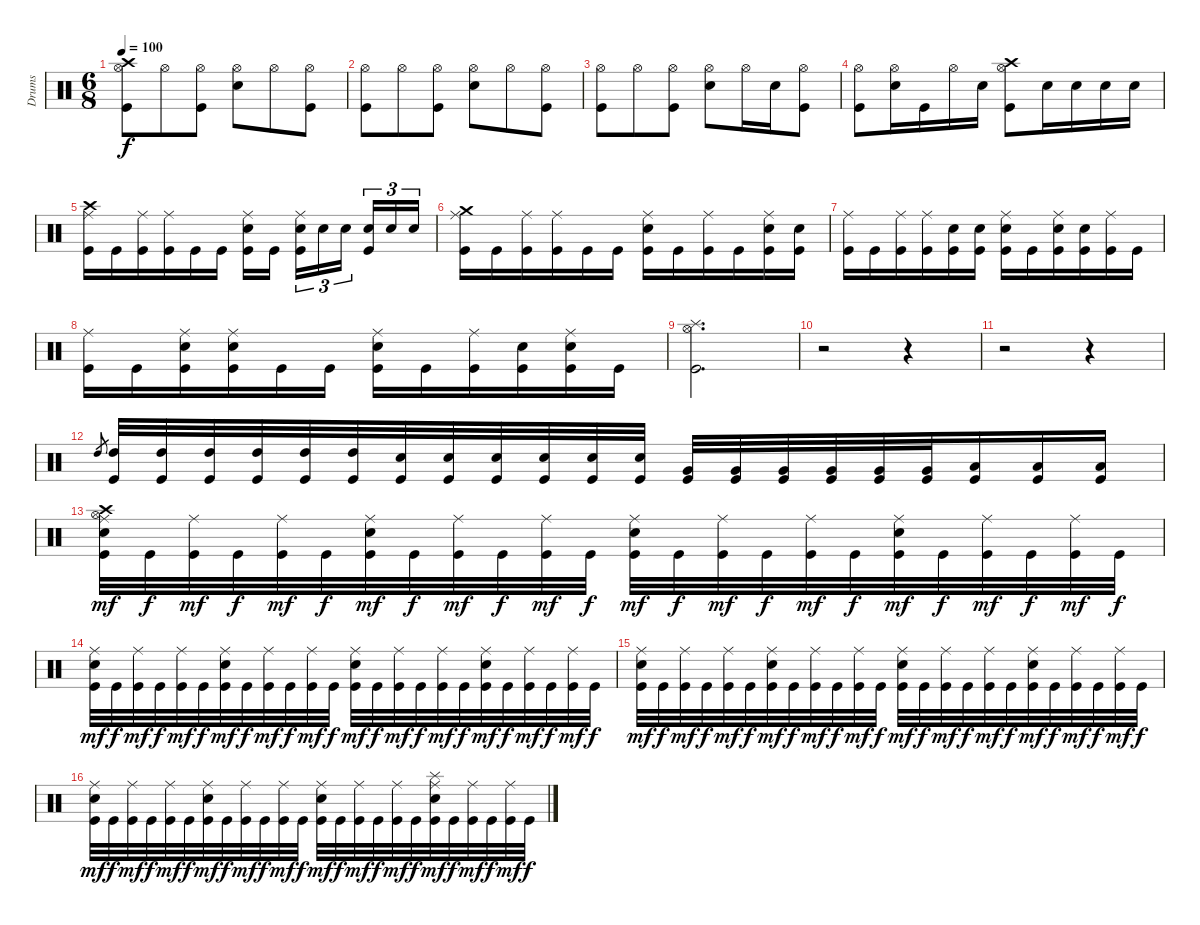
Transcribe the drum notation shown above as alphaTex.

\track ("Drums" "Drums") {instrument percussion}
\staff {score}
\articulation defaults
\ts (6 8)
\tempo 100
\clef neutral
\ks c
("Crash high (hit)" "Hi-Hat (open)" "Kick (hit)").8{dy f} "Hi-Hat (open)".8 ("Hi-Hat (open)" "Kick (hit)").8 ("Hi-Hat (open)" "Electric Snare (hit)").8 "Hi-Hat (open)".8 ("Hi-Hat (open)" "Kick (hit)").8 |
("Hi-Hat (open)" "Kick (hit)").8 "Hi-Hat (open)".8 ("Hi-Hat (open)" "Kick (hit)").8 ("Hi-Hat (open)" "Electric Snare (hit)").8 "Hi-Hat (open)".8 ("Hi-Hat (open)" "Kick (hit)").8 |
("Hi-Hat (open)" "Kick (hit)").8 "Hi-Hat (open)".8 ("Hi-Hat (open)" "Kick (hit)").8 ("Hi-Hat (open)" "Electric Snare (hit)").8 "Hi-Hat (open)".16 "Electric Snare (hit)".16 ("Hi-Hat (open)" "Kick (hit)").8 |
("Hi-Hat (open)" "Kick (hit)").8 ("Hi-Hat (open)" "Electric Snare (hit)").16 "Kick (hit)".16 "Hi-Hat (open)".16 "Electric Snare (hit)".16 ("Crash high (hit)" "Hi-Hat (open)" "Kick (hit)").8 "Electric Snare (hit)".16 "Electric Snare (hit)".16 "Electric Snare (hit)".16 "Electric Snare (hit)".16 |
("Crash high (hit)" "Ride (middle)" "Kick (hit)").16 "Kick (hit)".16 ("Ride (middle)" "Kick (hit)").16 ("Ride (middle)" "Kick (hit)").16 "Kick (hit)".16 "Kick (hit)".16 ("Ride (middle)" "Electric Snare (hit)" "Kick (hit)").16 "Kick (hit)".16{beam splitsecondary} ("Ride (middle)" "Electric Snare (hit)" "Kick (hit)").16{tu (3 2)} "Electric Snare (hit)".16{tu (3 2)} "Electric Snare (hit)".16{tu (3 2) beam splitsecondary} ("Electric Snare (hit)" "Kick (hit)").16{tu (3 2)} "Electric Snare (hit)".16{tu (3 2)} "Electric Snare (hit)".16{tu (3 2)} |
("Crash medium (hit)" "Ride (middle)" "Kick (hit)").16 "Kick (hit)".16 ("Ride (middle)" "Kick (hit)").16 ("Ride (middle)" "Kick (hit)").16 "Kick (hit)".16 "Kick (hit)".16 ("Ride (middle)" "Electric Snare (hit)" "Kick (hit)").16 "Kick (hit)".16 ("Ride (middle)" "Kick (hit)").16 "Kick (hit)".16 ("Ride (middle)" "Electric Snare (hit)" "Kick (hit)").16 ("Electric Snare (hit)" "Kick (hit)").16 |
("Ride (middle)" "Kick (hit)").16 "Kick (hit)".16 ("Ride (middle)" "Kick (hit)").16 ("Ride (middle)" "Kick (hit)").16 ("Electric Snare (hit)" "Kick (hit)").16 ("Electric Snare (hit)" "Kick (hit)").16 ("Ride (middle)" "Electric Snare (hit)" "Kick (hit)").16 "Kick (hit)".16 ("Ride (middle)" "Electric Snare (hit)" "Kick (hit)").16 ("Electric Snare (hit)" "Kick (hit)").16 ("Ride (middle)" "Kick (hit)").16 "Kick (hit)".16 |
("Ride (middle)" "Kick (hit)").16 "Kick (hit)".16 ("Ride (middle)" "Electric Snare (hit)" "Kick (hit)").16 ("Ride (middle)" "Electric Snare (hit)" "Kick (hit)").16 "Kick (hit)".16 "Kick (hit)".16 ("Ride (middle)" "Electric Snare (hit)" "Kick (hit)").16 "Kick (hit)".16 ("Ride (middle)" "Kick (hit)").16 ("Electric Snare (hit)" "Kick (hit)").16 ("Ride (middle)" "Electric Snare (hit)" "Kick (hit)").16 "Kick (hit)".16 |
("Splash (hit)" "Hi-Hat (open)" "Kick (hit)").2{d} |
r.2 r.4 |
r.2 r.4 |
"High Tom (hit)".8{gr} ("High Tom (hit)" "Kick (hit)").32 ("High Tom (hit)" "Kick (hit)").32 ("High Tom (hit)" "Kick (hit)").32 ("High Tom (hit)" "Kick (hit)").32 ("High Tom (hit)" "Kick (hit)").32 ("High Tom (hit)" "Kick (hit)").32 ("Electric Snare (hit)" "Kick (hit)").32 ("Electric Snare (hit)" "Kick (hit)").32 ("Electric Snare (hit)" "Kick (hit)").32 ("Electric Snare (hit)" "Kick (hit)").32 ("Electric Snare (hit)" "Kick (hit)").32 ("Electric Snare (hit)" "Kick (hit)").32 ("Very Low Tom (hit)" "Kick (hit)").32 ("Very Low Tom (hit)" "Kick (hit)").32 ("Very Low Tom (hit)" "Kick (hit)").32 ("Very Low Tom (hit)" "Kick (hit)").32 ("Very Low Tom (hit)" "Kick (hit)").32 ("Very Low Tom (hit)" "Kick (hit)").32 ("Low Floor Tom (hit)" "Kick (hit)").16 ("Low Floor Tom (hit)" "Kick (hit)").16 ("Low Floor Tom (hit)" "Kick (hit)").16 |
("Crash high (hit)" "Hi-Hat (open)" "Ride (middle)" "Electric Snare (hit)" "Kick (hit)").32{dy mf} "Kick (hit)".32{dy f} ("Ride (middle)" "Kick (hit)").32{dy mf} "Kick (hit)".32{dy f} ("Ride (middle)" "Kick (hit)").32{dy mf} "Kick (hit)".32{dy f} ("Ride (middle)" "Electric Snare (hit)" "Kick (hit)").32{dy mf} "Kick (hit)".32{dy f} ("Ride (middle)" "Kick (hit)").32{dy mf} "Kick (hit)".32{dy f} ("Ride (middle)" "Kick (hit)").32{dy mf} "Kick (hit)".32{dy f} ("Ride (middle)" "Electric Snare (hit)" "Kick (hit)").32{dy mf} "Kick (hit)".32{dy f} ("Ride (middle)" "Kick (hit)").32{dy mf} "Kick (hit)".32{dy f} ("Ride (middle)" "Kick (hit)").32{dy mf} "Kick (hit)".32{dy f} ("Ride (middle)" "Electric Snare (hit)" "Kick (hit)").32{dy mf} "Kick (hit)".32{dy f} ("Ride (middle)" "Kick (hit)").32{dy mf} "Kick (hit)".32{dy f} ("Ride (middle)" "Kick (hit)").32{dy mf} "Kick (hit)".32{dy f} |
("Ride (middle)" "Electric Snare (hit)" "Kick (hit)").32{dy mf} "Kick (hit)".32{dy f} ("Ride (middle)" "Kick (hit)").32{dy mf} "Kick (hit)".32{dy f} ("Ride (middle)" "Kick (hit)").32{dy mf} "Kick (hit)".32{dy f} ("Ride (middle)" "Electric Snare (hit)" "Kick (hit)").32{dy mf} "Kick (hit)".32{dy f} ("Ride (middle)" "Kick (hit)").32{dy mf} "Kick (hit)".32{dy f} ("Ride (middle)" "Kick (hit)").32{dy mf} "Kick (hit)".32{dy f} ("Ride (middle)" "Electric Snare (hit)" "Kick (hit)").32{dy mf} "Kick (hit)".32{dy f} ("Ride (middle)" "Kick (hit)").32{dy mf} "Kick (hit)".32{dy f} ("Ride (middle)" "Kick (hit)").32{dy mf} "Kick (hit)".32{dy f} ("Ride (middle)" "Electric Snare (hit)" "Kick (hit)").32{dy mf} "Kick (hit)".32{dy f} ("Ride (middle)" "Kick (hit)").32{dy mf} "Kick (hit)".32{dy f} ("Ride (middle)" "Kick (hit)").32{dy mf} "Kick (hit)".32{dy f} |
("Ride (middle)" "Electric Snare (hit)" "Kick (hit)").32{dy mf} "Kick (hit)".32{dy f} ("Ride (middle)" "Kick (hit)").32{dy mf} "Kick (hit)".32{dy f} ("Ride (middle)" "Kick (hit)").32{dy mf} "Kick (hit)".32{dy f} ("Ride (middle)" "Electric Snare (hit)" "Kick (hit)").32{dy mf} "Kick (hit)".32{dy f} ("Ride (middle)" "Kick (hit)").32{dy mf} "Kick (hit)".32{dy f} ("Ride (middle)" "Kick (hit)").32{dy mf} "Kick (hit)".32{dy f} ("Ride (middle)" "Electric Snare (hit)" "Kick (hit)").32{dy mf} "Kick (hit)".32{dy f} ("Ride (middle)" "Kick (hit)").32{dy mf} "Kick (hit)".32{dy f} ("Ride (middle)" "Kick (hit)").32{dy mf} "Kick (hit)".32{dy f} ("Ride (middle)" "Electric Snare (hit)" "Kick (hit)").32{dy mf} "Kick (hit)".32{dy f} ("Ride (middle)" "Kick (hit)").32{dy mf} "Kick (hit)".32{dy f} ("Ride (middle)" "Kick (hit)").32{dy mf} "Kick (hit)".32{dy f} |
("Ride (middle)" "Electric Snare (hit)" "Kick (hit)").32{dy mf} "Kick (hit)".32{dy f} ("Ride (middle)" "Kick (hit)").32{dy mf} "Kick (hit)".32{dy f} ("Ride (middle)" "Kick (hit)").32{dy mf} "Kick (hit)".32{dy f} ("Ride (middle)" "Electric Snare (hit)" "Kick (hit)").32{dy mf} "Kick (hit)".32{dy f} ("Ride (middle)" "Kick (hit)").32{dy mf} "Kick (hit)".32{dy f} ("Ride (middle)" "Kick (hit)").32{dy mf} "Kick (hit)".32{dy f} ("Ride (middle)" "Electric Snare (hit)" "Kick (hit)").32{dy mf} "Kick (hit)".32{dy f} ("Ride (middle)" "Kick (hit)").32{dy mf} "Kick (hit)".32{dy f} ("Ride (middle)" "Kick (hit)").32{dy mf} "Kick (hit)".32{dy f} ("Splash (hit)" "Ride (middle)" "Electric Snare (hit)" "Kick (hit)").32{dy mf} "Kick (hit)".32{dy f} ("Ride (middle)" "Kick (hit)").32{dy mf} "Kick (hit)".32{dy f} ("Ride (middle)" "Kick (hit)").32{dy mf} "Kick (hit)".32{dy f}
